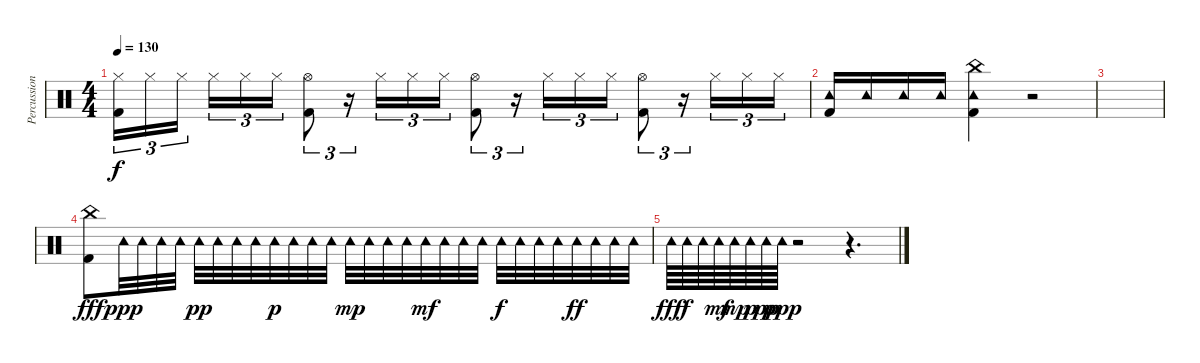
\track ("Percussioni" "Percussion") {instrument percussion}
\staff {score}
\articulation defaults
\ts (4 4)
\tempo 130
\clef neutral
\ks c
("Hi-Hat (closed)" "Kick (hit) 2").16{tu (3 2) dy f} "Hi-Hat (closed)".16{tu (3 2)} "Hi-Hat (closed)".16{tu (3 2)} "Hi-Hat (closed)".16{tu (3 2)} "Hi-Hat (closed)".16{tu (3 2)} "Hi-Hat (closed)".16{tu (3 2)} ("Hi-Hat (open)" "Kick (hit) 2").8{tu (3 2)} r.16{tu (3 2)} "Hi-Hat (closed)".16{tu (3 2)} "Hi-Hat (closed)".16{tu (3 2)} "Hi-Hat (closed)".16{tu (3 2)} ("Hi-Hat (open)" "Kick (hit) 2").8{tu (3 2)} r.16{tu (3 2)} "Hi-Hat (closed)".16{tu (3 2)} "Hi-Hat (closed)".16{tu (3 2)} "Hi-Hat (closed)".16{tu (3 2)} ("Hi-Hat (open)" "Kick (hit) 2").8{tu (3 2)} r.16{tu (3 2)} "Hi-Hat (closed)".16{tu (3 2)} "Hi-Hat (closed)".16{tu (3 2)} "Hi-Hat (closed)".16{tu (3 2)} |
("Tambourine (hit)" "Kick (hit) 2").16 "Tambourine (hit)".16 "Tambourine (hit)".16 "Tambourine (hit)".16 ("Tambourine (hit)" "China (hit)" "Kick (hit) 2").4 r.2 |
|
("China (hit)" "Kick (hit) 2").8{dy fff} "Tambourine (hit)".32{dy ppp} "Tambourine (hit)".32 "Tambourine (hit)".32 "Tambourine (hit)".32 "Tambourine (hit)".32{dy pp} "Tambourine (hit)".32 "Tambourine (hit)".32 "Tambourine (hit)".32 "Tambourine (hit)".32{dy p} "Tambourine (hit)".32 "Tambourine (hit)".32 "Tambourine (hit)".32 "Tambourine (hit)".32{dy mp} "Tambourine (hit)".32 "Tambourine (hit)".32 "Tambourine (hit)".32 "Tambourine (hit)".32{dy mf} "Tambourine (hit)".32 "Tambourine (hit)".32 "Tambourine (hit)".32 "Tambourine (hit)".32{dy f} "Tambourine (hit)".32 "Tambourine (hit)".32 "Tambourine (hit)".32 "Tambourine (hit)".32{dy ff} "Tambourine (hit)".32 "Tambourine (hit)".32 "Tambourine (hit)".32 |
"Tambourine (hit)".64{dy fff} "Tambourine (hit)".64{dy f} "Tambourine (hit)".64 "Tambourine (hit)".64{dy mf} "Tambourine (hit)".64{dy mp} "Tambourine (hit)".64{dy p} "Tambourine (hit)".64{dy pp} "Tambourine (hit)".64{dy ppp} r.2 r.4{d}
